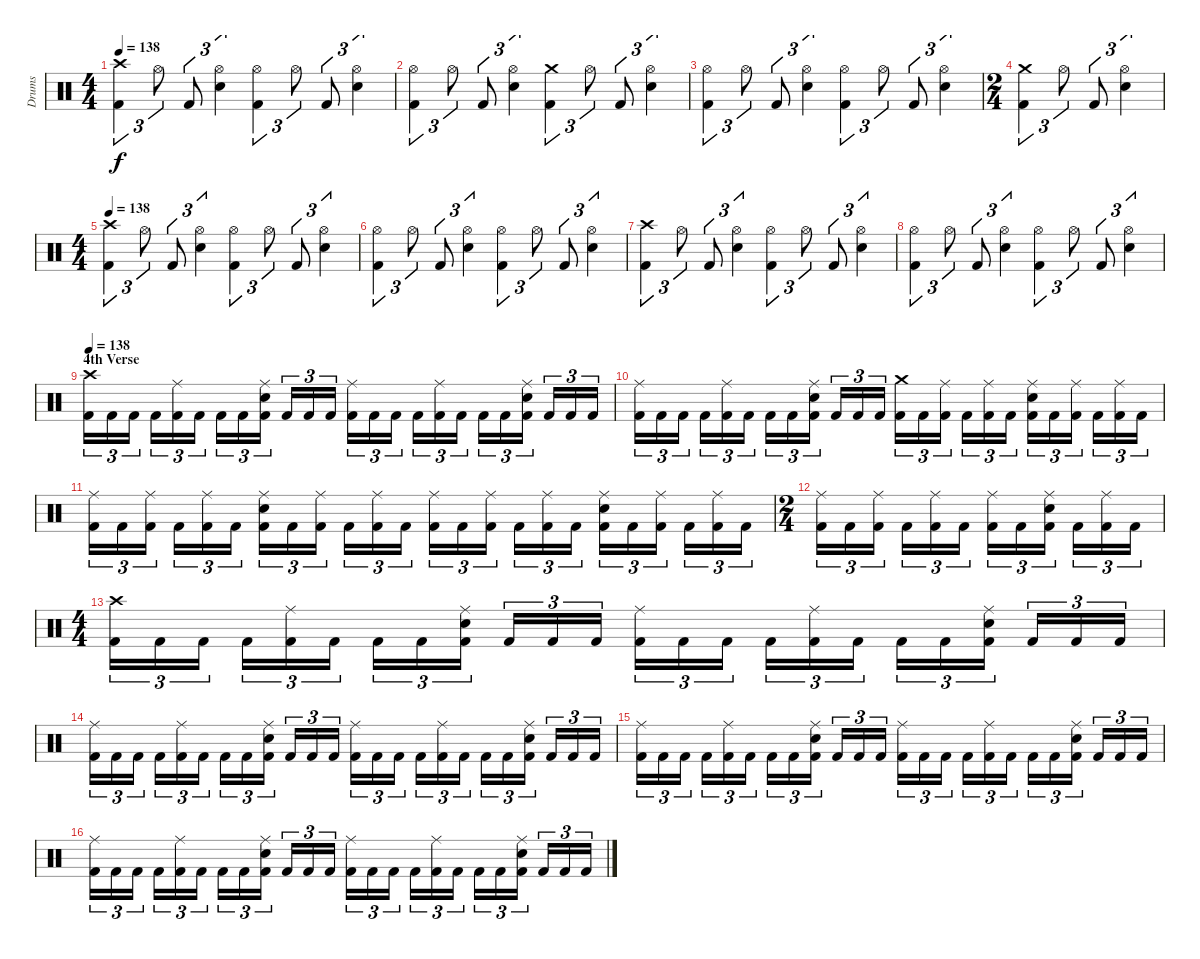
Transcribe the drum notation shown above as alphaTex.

\track ("Drums" "Drums") {instrument percussion}
\staff {score}
\articulation defaults
\ts (4 4)
\tempo 138
\clef neutral
\ks c
("Kick (hit) 2" "Crash high (hit)").4{tu (3 2) dy f} "Hi-Hat (open)".8{tu (3 2)} "Kick (hit) 2".8{tu (3 2)} ("Electric Snare (hit)" "Hi-Hat (open)").4{tu (3 2)} ("Kick (hit) 2" "Hi-Hat (open)").4{tu (3 2)} "Hi-Hat (open)".8{tu (3 2)} "Kick (hit) 2".8{tu (3 2)} ("Electric Snare (hit)" "Hi-Hat (open)").4{tu (3 2)} |
("Kick (hit) 2" "Hi-Hat (open)").4{tu (3 2)} "Hi-Hat (open)".8{tu (3 2)} "Kick (hit) 2".8{tu (3 2)} ("Electric Snare (hit)" "Hi-Hat (open)").4{tu (3 2)} ("Kick (hit) 2" "Crash medium (hit)").4{tu (3 2)} "Hi-Hat (open)".8{tu (3 2)} "Kick (hit) 2".8{tu (3 2)} ("Electric Snare (hit)" "Hi-Hat (open)").4{tu (3 2)} |
("Kick (hit) 2" "Hi-Hat (open)").4{tu (3 2)} "Hi-Hat (open)".8{tu (3 2)} "Kick (hit) 2".8{tu (3 2)} ("Electric Snare (hit)" "Hi-Hat (open)").4{tu (3 2)} ("Kick (hit) 2" "Hi-Hat (open)").4{tu (3 2)} "Hi-Hat (open)".8{tu (3 2)} "Kick (hit) 2".8{tu (3 2)} ("Electric Snare (hit)" "Hi-Hat (open)").4{tu (3 2)} |
\ts (2 4)
("Kick (hit) 2" "Crash medium (hit)").4{tu (3 2)} "Hi-Hat (open)".8{tu (3 2)} "Kick (hit) 2".8{tu (3 2)} ("Electric Snare (hit)" "Hi-Hat (open)").4{tu (3 2)} |
\ts (4 4)
\tempo 138
("Kick (hit) 2" "Crash high (hit)").4{tu (3 2)} "Hi-Hat (open)".8{tu (3 2)} "Kick (hit) 2".8{tu (3 2)} ("Electric Snare (hit)" "Hi-Hat (open)").4{tu (3 2)} ("Kick (hit) 2" "Hi-Hat (open)").4{tu (3 2)} "Hi-Hat (open)".8{tu (3 2)} "Kick (hit) 2".8{tu (3 2)} ("Electric Snare (hit)" "Hi-Hat (open)").4{tu (3 2)} |
("Kick (hit) 2" "Hi-Hat (open)").4{tu (3 2)} "Hi-Hat (open)".8{tu (3 2)} "Kick (hit) 2".8{tu (3 2)} ("Electric Snare (hit)" "Hi-Hat (open)").4{tu (3 2)} ("Kick (hit) 2" "Hi-Hat (open)").4{tu (3 2)} "Hi-Hat (open)".8{tu (3 2)} "Kick (hit) 2".8{tu (3 2)} ("Electric Snare (hit)" "Hi-Hat (open)").4{tu (3 2)} |
("Kick (hit) 2" "Crash high (hit)").4{tu (3 2)} "Hi-Hat (open)".8{tu (3 2)} "Kick (hit) 2".8{tu (3 2)} ("Electric Snare (hit)" "Hi-Hat (open)").4{tu (3 2)} ("Kick (hit) 2" "Hi-Hat (open)").4{tu (3 2)} "Hi-Hat (open)".8{tu (3 2)} "Kick (hit) 2".8{tu (3 2)} ("Electric Snare (hit)" "Hi-Hat (open)").4{tu (3 2)} |
("Kick (hit) 2" "Hi-Hat (open)").4{tu (3 2)} "Hi-Hat (open)".8{tu (3 2)} "Kick (hit) 2".8{tu (3 2)} ("Electric Snare (hit)" "Hi-Hat (open)").4{tu (3 2)} ("Kick (hit) 2" "Hi-Hat (open)").4{tu (3 2)} "Hi-Hat (open)".8{tu (3 2)} "Kick (hit) 2".8{tu (3 2)} ("Electric Snare (hit)" "Hi-Hat (open)").4{tu (3 2)} |
\section ("" "4th Verse")
\tempo 138
("Kick (hit) 2" "Crash high (hit)").16{tu (3 2)} "Kick (hit) 2".16{tu (3 2)} "Kick (hit) 2".16{tu (3 2)} "Kick (hit) 2".16{tu (3 2)} ("Kick (hit) 2" "Ride (middle)").16{tu (3 2)} "Kick (hit) 2".16{tu (3 2)} "Kick (hit) 2".16{tu (3 2)} "Kick (hit) 2".16{tu (3 2)} ("Kick (hit) 2" "Electric Snare (hit)" "Ride (middle)").16{tu (3 2)} "Kick (hit) 2".16{tu (3 2)} "Kick (hit) 2".16{tu (3 2)} "Kick (hit) 2".16{tu (3 2)} ("Kick (hit) 2" "Ride (middle)").16{tu (3 2)} "Kick (hit) 2".16{tu (3 2)} "Kick (hit) 2".16{tu (3 2)} "Kick (hit) 2".16{tu (3 2)} ("Kick (hit) 2" "Ride (middle)").16{tu (3 2)} "Kick (hit) 2".16{tu (3 2)} "Kick (hit) 2".16{tu (3 2)} "Kick (hit) 2".16{tu (3 2)} ("Kick (hit) 2" "Electric Snare (hit)" "Ride (middle)").16{tu (3 2)} "Kick (hit) 2".16{tu (3 2)} "Kick (hit) 2".16{tu (3 2)} "Kick (hit) 2".16{tu (3 2)} |
("Kick (hit) 2" "Ride (middle)").16{tu (3 2)} "Kick (hit) 2".16{tu (3 2)} "Kick (hit) 2".16{tu (3 2)} "Kick (hit) 2".16{tu (3 2)} ("Kick (hit) 2" "Ride (middle)").16{tu (3 2)} "Kick (hit) 2".16{tu (3 2)} "Kick (hit) 2".16{tu (3 2)} "Kick (hit) 2".16{tu (3 2)} ("Kick (hit) 2" "Electric Snare (hit)" "Ride (middle)").16{tu (3 2)} "Kick (hit) 2".16{tu (3 2)} "Kick (hit) 2".16{tu (3 2)} "Kick (hit) 2".16{tu (3 2)} ("Kick (hit) 2" "Crash medium (hit)").16{tu (3 2)} "Kick (hit) 2".16{tu (3 2)} ("Kick (hit) 2" "Ride (middle)").16{tu (3 2)} "Kick (hit) 2".16{tu (3 2)} ("Kick (hit) 2" "Ride (middle)").16{tu (3 2)} "Kick (hit) 2".16{tu (3 2)} ("Kick (hit) 2" "Electric Snare (hit)" "Ride (middle)").16{tu (3 2)} "Kick (hit) 2".16{tu (3 2)} ("Kick (hit) 2" "Ride (middle)").16{tu (3 2)} "Kick (hit) 2".16{tu (3 2)} ("Kick (hit) 2" "Ride (middle)").16{tu (3 2)} "Kick (hit) 2".16{tu (3 2)} |
("Kick (hit) 2" "Ride (middle)").16{tu (3 2)} "Kick (hit) 2".16{tu (3 2)} ("Kick (hit) 2" "Ride (middle)").16{tu (3 2)} "Kick (hit) 2".16{tu (3 2)} ("Kick (hit) 2" "Ride (middle)").16{tu (3 2)} "Kick (hit) 2".16{tu (3 2)} ("Kick (hit) 2" "Electric Snare (hit)" "Ride (middle)").16{tu (3 2)} "Kick (hit) 2".16{tu (3 2)} ("Kick (hit) 2" "Ride (middle)").16{tu (3 2)} "Kick (hit) 2".16{tu (3 2)} ("Kick (hit) 2" "Ride (middle)").16{tu (3 2)} "Kick (hit) 2".16{tu (3 2)} ("Kick (hit) 2" "Ride (middle)").16{tu (3 2)} "Kick (hit) 2".16{tu (3 2)} ("Kick (hit) 2" "Ride (middle)").16{tu (3 2)} "Kick (hit) 2".16{tu (3 2)} ("Kick (hit) 2" "Ride (middle)").16{tu (3 2)} "Kick (hit) 2".16{tu (3 2)} ("Kick (hit) 2" "Electric Snare (hit)" "Ride (middle)").16{tu (3 2)} "Kick (hit) 2".16{tu (3 2)} ("Kick (hit) 2" "Ride (middle)").16{tu (3 2)} "Kick (hit) 2".16{tu (3 2)} ("Kick (hit) 2" "Ride (middle)").16{tu (3 2)} "Kick (hit) 2".16{tu (3 2)} |
\ts (2 4)
("Kick (hit) 2" "Ride (middle)").16{tu (3 2)} "Kick (hit) 2".16{tu (3 2)} ("Kick (hit) 2" "Ride (middle)").16{tu (3 2)} "Kick (hit) 2".16{tu (3 2)} ("Kick (hit) 2" "Ride (middle)").16{tu (3 2)} "Kick (hit) 2".16{tu (3 2)} ("Kick (hit) 2" "Ride (middle)").16{tu (3 2)} "Kick (hit) 2".16{tu (3 2)} ("Kick (hit) 2" "Electric Snare (hit)" "Ride (middle)").16{tu (3 2)} "Kick (hit) 2".16{tu (3 2)} ("Kick (hit) 2" "Ride (middle)").16{tu (3 2)} "Kick (hit) 2".16{tu (3 2)} |
\ts (4 4)
("Kick (hit) 2" "Crash high (hit)").16{tu (3 2)} "Kick (hit) 2".16{tu (3 2)} "Kick (hit) 2".16{tu (3 2)} "Kick (hit) 2".16{tu (3 2)} ("Kick (hit) 2" "Ride (middle)").16{tu (3 2)} "Kick (hit) 2".16{tu (3 2)} "Kick (hit) 2".16{tu (3 2)} "Kick (hit) 2".16{tu (3 2)} ("Kick (hit) 2" "Electric Snare (hit)" "Ride (middle)").16{tu (3 2)} "Kick (hit) 2".16{tu (3 2)} "Kick (hit) 2".16{tu (3 2)} "Kick (hit) 2".16{tu (3 2)} ("Kick (hit) 2" "Ride (middle)").16{tu (3 2)} "Kick (hit) 2".16{tu (3 2)} "Kick (hit) 2".16{tu (3 2)} "Kick (hit) 2".16{tu (3 2)} ("Kick (hit) 2" "Ride (middle)").16{tu (3 2)} "Kick (hit) 2".16{tu (3 2)} "Kick (hit) 2".16{tu (3 2)} "Kick (hit) 2".16{tu (3 2)} ("Kick (hit) 2" "Electric Snare (hit)" "Ride (middle)").16{tu (3 2)} "Kick (hit) 2".16{tu (3 2)} "Kick (hit) 2".16{tu (3 2)} "Kick (hit) 2".16{tu (3 2)} |
("Kick (hit) 2" "Ride (middle)").16{tu (3 2)} "Kick (hit) 2".16{tu (3 2)} "Kick (hit) 2".16{tu (3 2)} "Kick (hit) 2".16{tu (3 2)} ("Kick (hit) 2" "Ride (middle)").16{tu (3 2)} "Kick (hit) 2".16{tu (3 2)} "Kick (hit) 2".16{tu (3 2)} "Kick (hit) 2".16{tu (3 2)} ("Kick (hit) 2" "Electric Snare (hit)" "Ride (middle)").16{tu (3 2)} "Kick (hit) 2".16{tu (3 2)} "Kick (hit) 2".16{tu (3 2)} "Kick (hit) 2".16{tu (3 2)} ("Kick (hit) 2" "Ride (middle)").16{tu (3 2)} "Kick (hit) 2".16{tu (3 2)} "Kick (hit) 2".16{tu (3 2)} "Kick (hit) 2".16{tu (3 2)} ("Kick (hit) 2" "Ride (middle)").16{tu (3 2)} "Kick (hit) 2".16{tu (3 2)} "Kick (hit) 2".16{tu (3 2)} "Kick (hit) 2".16{tu (3 2)} ("Kick (hit) 2" "Electric Snare (hit)" "Ride (middle)").16{tu (3 2)} "Kick (hit) 2".16{tu (3 2)} "Kick (hit) 2".16{tu (3 2)} "Kick (hit) 2".16{tu (3 2)} |
("Kick (hit) 2" "Ride (middle)").16{tu (3 2)} "Kick (hit) 2".16{tu (3 2)} "Kick (hit) 2".16{tu (3 2)} "Kick (hit) 2".16{tu (3 2)} ("Kick (hit) 2" "Ride (middle)").16{tu (3 2)} "Kick (hit) 2".16{tu (3 2)} "Kick (hit) 2".16{tu (3 2)} "Kick (hit) 2".16{tu (3 2)} ("Kick (hit) 2" "Electric Snare (hit)" "Ride (middle)").16{tu (3 2)} "Kick (hit) 2".16{tu (3 2)} "Kick (hit) 2".16{tu (3 2)} "Kick (hit) 2".16{tu (3 2)} ("Kick (hit) 2" "Ride (middle)").16{tu (3 2)} "Kick (hit) 2".16{tu (3 2)} "Kick (hit) 2".16{tu (3 2)} "Kick (hit) 2".16{tu (3 2)} ("Kick (hit) 2" "Ride (middle)").16{tu (3 2)} "Kick (hit) 2".16{tu (3 2)} "Kick (hit) 2".16{tu (3 2)} "Kick (hit) 2".16{tu (3 2)} ("Kick (hit) 2" "Electric Snare (hit)" "Ride (middle)").16{tu (3 2)} "Kick (hit) 2".16{tu (3 2)} "Kick (hit) 2".16{tu (3 2)} "Kick (hit) 2".16{tu (3 2)} |
("Kick (hit) 2" "Ride (middle)").16{tu (3 2)} "Kick (hit) 2".16{tu (3 2)} "Kick (hit) 2".16{tu (3 2)} "Kick (hit) 2".16{tu (3 2)} ("Kick (hit) 2" "Ride (middle)").16{tu (3 2)} "Kick (hit) 2".16{tu (3 2)} "Kick (hit) 2".16{tu (3 2)} "Kick (hit) 2".16{tu (3 2)} ("Kick (hit) 2" "Electric Snare (hit)" "Ride (middle)").16{tu (3 2)} "Kick (hit) 2".16{tu (3 2)} "Kick (hit) 2".16{tu (3 2)} "Kick (hit) 2".16{tu (3 2)} ("Kick (hit) 2" "Ride (middle)").16{tu (3 2)} "Kick (hit) 2".16{tu (3 2)} "Kick (hit) 2".16{tu (3 2)} "Kick (hit) 2".16{tu (3 2)} ("Kick (hit) 2" "Ride (middle)").16{tu (3 2)} "Kick (hit) 2".16{tu (3 2)} "Kick (hit) 2".16{tu (3 2)} "Kick (hit) 2".16{tu (3 2)} ("Kick (hit) 2" "Electric Snare (hit)" "Ride (middle)").16{tu (3 2)} "Kick (hit) 2".16{tu (3 2)} "Kick (hit) 2".16{tu (3 2)} "Kick (hit) 2".16{tu (3 2)}
